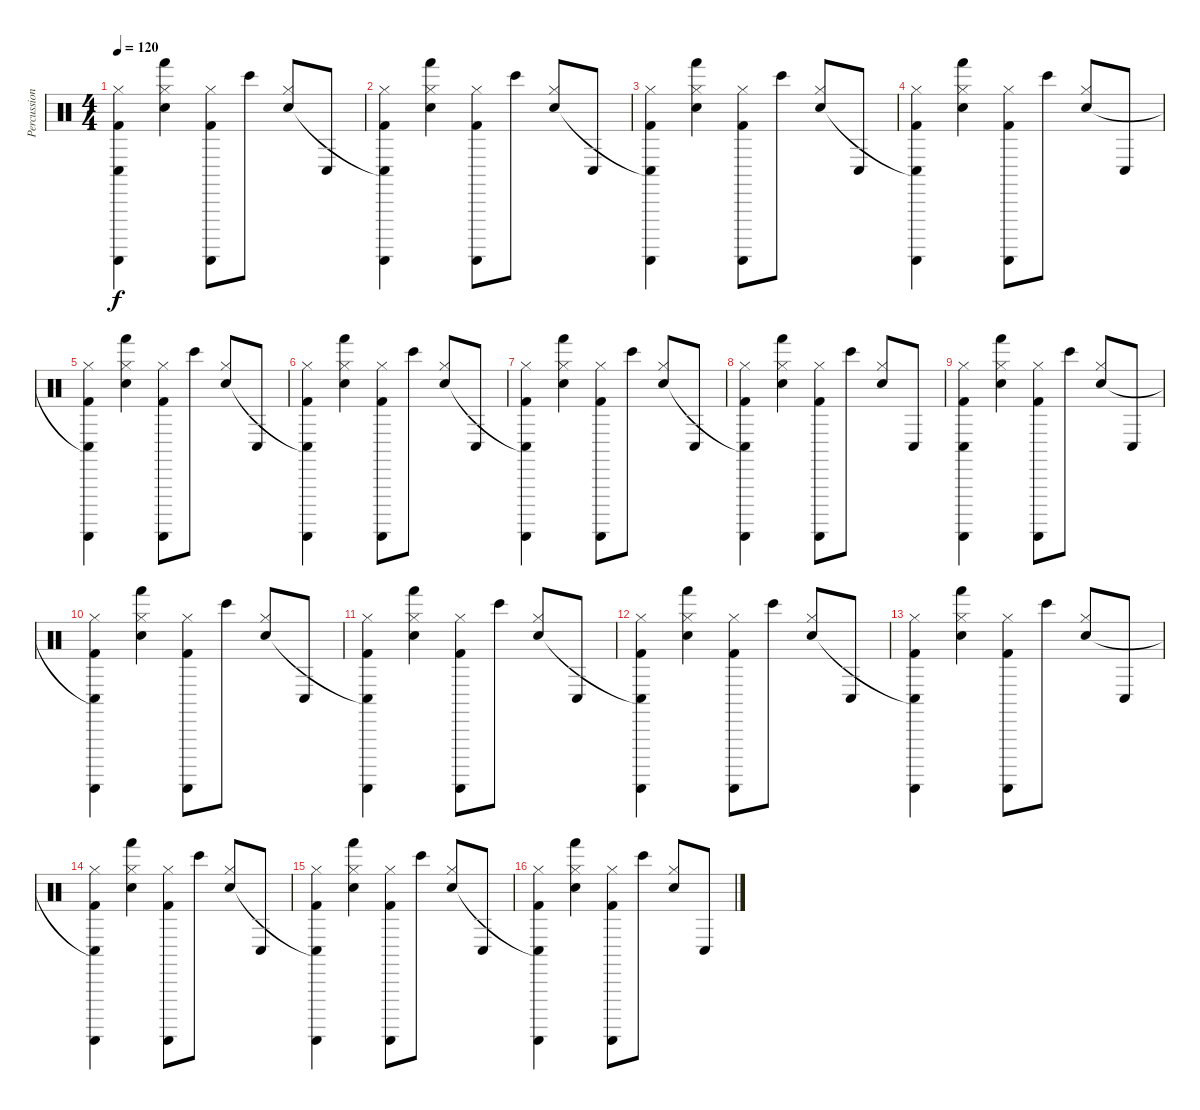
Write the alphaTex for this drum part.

\track ("Percussions" "Percussion") {instrument percussion}
\staff {score}
\articulation defaults
\ts (4 4)
\tempo 120
\clef neutral
\ks c
("Hi-Hat (closed)" "Conga low (hit)"{t} "Guiro (scrap-return)" "Kick (hit) 2").4{dy f} ("Hi-Hat (closed)" "Hand (hit)" "Snare (hit) 2").4 ("Hi-Hat (closed)" "Guiro (scrap-return)" "Kick (hit) 2").8 "Bongo High (hit)".8 ("Hi-Hat (closed)" "Snare (hit) 2").8 "Conga low (hit)".8 |
("Hi-Hat (closed)" "Conga low (hit)"{t} "Guiro (scrap-return)" "Kick (hit) 2").4 ("Hi-Hat (closed)" "Hand (hit)" "Snare (hit) 2").4 ("Hi-Hat (closed)" "Guiro (scrap-return)" "Kick (hit) 2").8 "Bongo High (hit)".8 ("Hi-Hat (closed)" "Snare (hit) 2").8 "Conga low (hit)".8 |
("Hi-Hat (closed)" "Conga low (hit)"{t} "Guiro (scrap-return)" "Kick (hit) 2").4 ("Hi-Hat (closed)" "Hand (hit)" "Snare (hit) 2").4 ("Hi-Hat (closed)" "Guiro (scrap-return)" "Kick (hit) 2").8 "Bongo High (hit)".8 ("Hi-Hat (closed)" "Snare (hit) 2").8 "Conga low (hit)".8 |
("Hi-Hat (closed)" "Conga low (hit)"{t} "Guiro (scrap-return)" "Kick (hit) 2").4 ("Hi-Hat (closed)" "Hand (hit)" "Snare (hit) 2").4 ("Hi-Hat (closed)" "Guiro (scrap-return)" "Kick (hit) 2").8 "Bongo High (hit)".8 ("Hi-Hat (closed)" "Snare (hit) 2").8 "Conga low (hit)".8 |
("Hi-Hat (closed)" "Conga low (hit)"{t} "Guiro (scrap-return)" "Kick (hit) 2").4 ("Hi-Hat (closed)" "Hand (hit)" "Snare (hit) 2").4 ("Hi-Hat (closed)" "Guiro (scrap-return)" "Kick (hit) 2").8 "Bongo High (hit)".8 ("Hi-Hat (closed)" "Snare (hit) 2").8 "Conga low (hit)".8 |
("Hi-Hat (closed)" "Conga low (hit)"{t} "Guiro (scrap-return)" "Kick (hit) 2").4 ("Hi-Hat (closed)" "Hand (hit)" "Snare (hit) 2").4 ("Hi-Hat (closed)" "Guiro (scrap-return)" "Kick (hit) 2").8 "Bongo High (hit)".8 ("Hi-Hat (closed)" "Snare (hit) 2").8 "Conga low (hit)".8 |
("Hi-Hat (closed)" "Conga low (hit)"{t} "Guiro (scrap-return)" "Kick (hit) 2").4 ("Hi-Hat (closed)" "Hand (hit)" "Snare (hit) 2").4 ("Hi-Hat (closed)" "Guiro (scrap-return)" "Kick (hit) 2").8 "Bongo High (hit)".8 ("Hi-Hat (closed)" "Snare (hit) 2").8 "Conga low (hit)".8 |
("Hi-Hat (closed)" "Conga low (hit)"{t} "Guiro (scrap-return)" "Kick (hit) 2").4 ("Hi-Hat (closed)" "Hand (hit)" "Snare (hit) 2").4 ("Hi-Hat (closed)" "Guiro (scrap-return)" "Kick (hit) 2").8 "Bongo High (hit)".8 ("Hi-Hat (closed)" "Snare (hit) 2").8 "Conga low (hit)".8 |
("Hi-Hat (closed)" "Conga low (hit)" "Guiro (scrap-return)" "Kick (hit) 2").4 ("Hi-Hat (closed)" "Hand (hit)" "Snare (hit) 2").4 ("Hi-Hat (closed)" "Guiro (scrap-return)" "Kick (hit) 2").8 "Bongo High (hit)".8 ("Hi-Hat (closed)" "Snare (hit) 2").8 "Conga low (hit)".8 |
("Hi-Hat (closed)" "Conga low (hit)"{t} "Guiro (scrap-return)" "Kick (hit) 2").4 ("Hi-Hat (closed)" "Hand (hit)" "Snare (hit) 2").4 ("Hi-Hat (closed)" "Guiro (scrap-return)" "Kick (hit) 2").8 "Bongo High (hit)".8 ("Hi-Hat (closed)" "Snare (hit) 2").8 "Conga low (hit)".8 |
("Hi-Hat (closed)" "Conga low (hit)"{t} "Guiro (scrap-return)" "Kick (hit) 2").4 ("Hi-Hat (closed)" "Hand (hit)" "Snare (hit) 2").4 ("Hi-Hat (closed)" "Guiro (scrap-return)" "Kick (hit) 2").8 "Bongo High (hit)".8 ("Hi-Hat (closed)" "Snare (hit) 2").8 "Conga low (hit)".8 |
("Hi-Hat (closed)" "Conga low (hit)"{t} "Guiro (scrap-return)" "Kick (hit) 2").4 ("Hi-Hat (closed)" "Hand (hit)" "Snare (hit) 2").4 ("Hi-Hat (closed)" "Guiro (scrap-return)" "Kick (hit) 2").8 "Bongo High (hit)".8 ("Hi-Hat (closed)" "Snare (hit) 2").8 "Conga low (hit)".8 |
("Hi-Hat (closed)" "Conga low (hit)"{t} "Guiro (scrap-return)" "Kick (hit) 2").4 ("Hi-Hat (closed)" "Hand (hit)" "Snare (hit) 2").4 ("Hi-Hat (closed)" "Guiro (scrap-return)" "Kick (hit) 2").8 "Bongo High (hit)".8 ("Hi-Hat (closed)" "Snare (hit) 2").8 "Conga low (hit)".8 |
("Hi-Hat (closed)" "Conga low (hit)"{t} "Guiro (scrap-return)" "Kick (hit) 2").4 ("Hi-Hat (closed)" "Hand (hit)" "Snare (hit) 2").4 ("Hi-Hat (closed)" "Guiro (scrap-return)" "Kick (hit) 2").8 "Bongo High (hit)".8 ("Hi-Hat (closed)" "Snare (hit) 2").8 "Conga low (hit)".8 |
("Hi-Hat (closed)" "Conga low (hit)"{t} "Guiro (scrap-return)" "Kick (hit) 2").4 ("Hi-Hat (closed)" "Hand (hit)" "Snare (hit) 2").4 ("Hi-Hat (closed)" "Guiro (scrap-return)" "Kick (hit) 2").8 "Bongo High (hit)".8 ("Hi-Hat (closed)" "Snare (hit) 2").8 "Conga low (hit)".8 |
("Hi-Hat (closed)" "Conga low (hit)"{t} "Guiro (scrap-return)" "Kick (hit) 2").4 ("Hi-Hat (closed)" "Hand (hit)" "Snare (hit) 2").4 ("Hi-Hat (closed)" "Guiro (scrap-return)" "Kick (hit) 2").8 "Bongo High (hit)".8 ("Hi-Hat (closed)" "Snare (hit) 2").8 "Conga low (hit)".8
